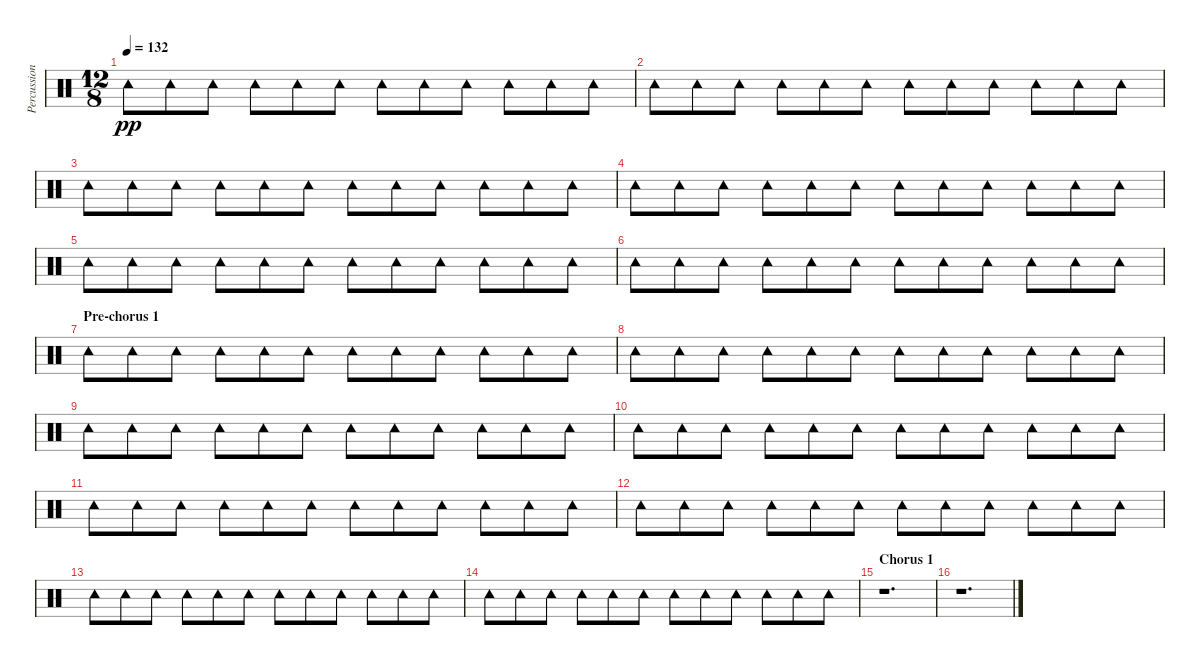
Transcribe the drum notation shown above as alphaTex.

\track ("Percussion" "Percussion") {instrument percussion}
\staff {score}
\articulation defaults
\ts (12 8)
\tempo 132
\clef neutral
\ks c "Tambourine (hit)".8{dy pp} "Tambourine (hit)".8 "Tambourine (hit)".8 "Tambourine (hit)".8 "Tambourine (hit)".8 "Tambourine (hit)".8 "Tambourine (hit)".8 "Tambourine (hit)".8 "Tambourine (hit)".8 "Tambourine (hit)".8 "Tambourine (hit)".8 "Tambourine (hit)".8
|
"Tambourine (hit)".8 "Tambourine (hit)".8 "Tambourine (hit)".8 "Tambourine (hit)".8 "Tambourine (hit)".8 "Tambourine (hit)".8 "Tambourine (hit)".8 "Tambourine (hit)".8 "Tambourine (hit)".8 "Tambourine (hit)".8 "Tambourine (hit)".8 "Tambourine (hit)".8 |
"Tambourine (hit)".8 "Tambourine (hit)".8 "Tambourine (hit)".8 "Tambourine (hit)".8 "Tambourine (hit)".8 "Tambourine (hit)".8 "Tambourine (hit)".8 "Tambourine (hit)".8 "Tambourine (hit)".8 "Tambourine (hit)".8 "Tambourine (hit)".8 "Tambourine (hit)".8 |
"Tambourine (hit)".8 "Tambourine (hit)".8 "Tambourine (hit)".8 "Tambourine (hit)".8 "Tambourine (hit)".8 "Tambourine (hit)".8 "Tambourine (hit)".8 "Tambourine (hit)".8 "Tambourine (hit)".8 "Tambourine (hit)".8 "Tambourine (hit)".8 "Tambourine (hit)".8 |
"Tambourine (hit)".8 "Tambourine (hit)".8 "Tambourine (hit)".8 "Tambourine (hit)".8 "Tambourine (hit)".8 "Tambourine (hit)".8 "Tambourine (hit)".8 "Tambourine (hit)".8 "Tambourine (hit)".8 "Tambourine (hit)".8 "Tambourine (hit)".8 "Tambourine (hit)".8 |
"Tambourine (hit)".8 "Tambourine (hit)".8 "Tambourine (hit)".8 "Tambourine (hit)".8 "Tambourine (hit)".8 "Tambourine (hit)".8 "Tambourine (hit)".8 "Tambourine (hit)".8 "Tambourine (hit)".8 "Tambourine (hit)".8 "Tambourine (hit)".8 "Tambourine (hit)".8 |
\section ("" "Pre-chorus 1")
"Tambourine (hit)".8 "Tambourine (hit)".8 "Tambourine (hit)".8 "Tambourine (hit)".8 "Tambourine (hit)".8 "Tambourine (hit)".8 "Tambourine (hit)".8 "Tambourine (hit)".8 "Tambourine (hit)".8 "Tambourine (hit)".8 "Tambourine (hit)".8 "Tambourine (hit)".8 |
"Tambourine (hit)".8 "Tambourine (hit)".8 "Tambourine (hit)".8 "Tambourine (hit)".8 "Tambourine (hit)".8 "Tambourine (hit)".8 "Tambourine (hit)".8 "Tambourine (hit)".8 "Tambourine (hit)".8 "Tambourine (hit)".8 "Tambourine (hit)".8 "Tambourine (hit)".8 |
"Tambourine (hit)".8 "Tambourine (hit)".8 "Tambourine (hit)".8 "Tambourine (hit)".8 "Tambourine (hit)".8 "Tambourine (hit)".8 "Tambourine (hit)".8 "Tambourine (hit)".8 "Tambourine (hit)".8 "Tambourine (hit)".8 "Tambourine (hit)".8 "Tambourine (hit)".8 |
"Tambourine (hit)".8 "Tambourine (hit)".8 "Tambourine (hit)".8 "Tambourine (hit)".8 "Tambourine (hit)".8 "Tambourine (hit)".8 "Tambourine (hit)".8 "Tambourine (hit)".8 "Tambourine (hit)".8 "Tambourine (hit)".8 "Tambourine (hit)".8 "Tambourine (hit)".8 |
"Tambourine (hit)".8 "Tambourine (hit)".8 "Tambourine (hit)".8 "Tambourine (hit)".8 "Tambourine (hit)".8 "Tambourine (hit)".8 "Tambourine (hit)".8 "Tambourine (hit)".8 "Tambourine (hit)".8 "Tambourine (hit)".8 "Tambourine (hit)".8 "Tambourine (hit)".8 |
"Tambourine (hit)".8 "Tambourine (hit)".8 "Tambourine (hit)".8 "Tambourine (hit)".8 "Tambourine (hit)".8 "Tambourine (hit)".8 "Tambourine (hit)".8 "Tambourine (hit)".8 "Tambourine (hit)".8 "Tambourine (hit)".8 "Tambourine (hit)".8 "Tambourine (hit)".8 |
"Tambourine (hit)".8 "Tambourine (hit)".8 "Tambourine (hit)".8 "Tambourine (hit)".8 "Tambourine (hit)".8 "Tambourine (hit)".8 "Tambourine (hit)".8 "Tambourine (hit)".8 "Tambourine (hit)".8 "Tambourine (hit)".8 "Tambourine (hit)".8 "Tambourine (hit)".8 |
"Tambourine (hit)".8 "Tambourine (hit)".8 "Tambourine (hit)".8 "Tambourine (hit)".8 "Tambourine (hit)".8 "Tambourine (hit)".8 "Tambourine (hit)".8 "Tambourine (hit)".8 "Tambourine (hit)".8 "Tambourine (hit)".8 "Tambourine (hit)".8 "Tambourine (hit)".8 |
\section ("" "Chorus 1")
r.1{d} |
r.1{d}
